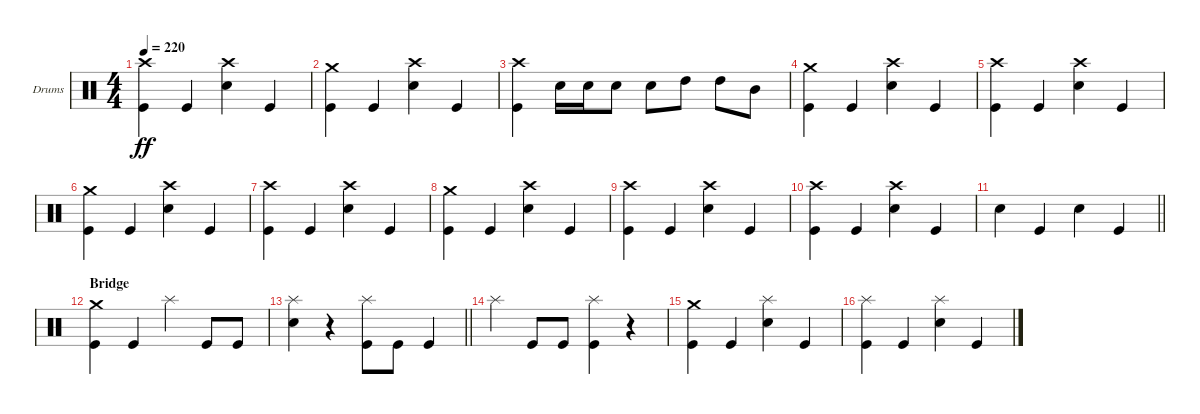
\bracketExtendMode groupsimilarinstruments
\firstSystemTrackNameOrientation horizontal
\otherSystemsTrackNameOrientation horizontal
\track ("Drumkit" "Drums") {instrument percussion}
\staff {score}
\articulation defaults
\ts (4 4)
\tempo 220
\clef neutral
\ks c
("Crash high (hit)" "Kick (hit)").4{dy ff} "Kick (hit)".4 ("Crash high (hit)" "Snare (hit) 2").4 "Kick (hit)".4 |
("Crash medium (hit)" "Kick (hit)").4 "Kick (hit)".4 ("Crash high (hit)" "Snare (hit) 2").4 "Kick (hit)".4 |
("Crash high (hit)" "Kick (hit)").4 "Snare (hit) 2".16 "Snare (hit) 2".16 "Snare (hit) 2".8 "Snare (hit) 2".8 "High Tom (hit)".8 "High Tom (hit)".8 "Mid Tom (hit)".8 |
("Crash medium (hit)" "Kick (hit)").4 "Kick (hit)".4 ("Crash high (hit)" "Snare (hit) 2").4 "Kick (hit)".4 |
("Crash high (hit)" "Kick (hit)").4 "Kick (hit)".4 ("Crash high (hit)" "Snare (hit) 2").4 "Kick (hit)".4 |
("Crash medium (hit)" "Kick (hit)").4 "Kick (hit)".4 ("Crash high (hit)" "Snare (hit) 2").4 "Kick (hit)".4 |
("Crash high (hit)" "Kick (hit)").4 "Kick (hit)".4 ("Crash high (hit)" "Snare (hit) 2").4 "Kick (hit)".4 |
("Crash medium (hit)" "Kick (hit)").4 "Kick (hit)".4 ("Crash high (hit)" "Snare (hit) 2").4 "Kick (hit)".4 |
("Crash high (hit)" "Kick (hit)").4 "Kick (hit)".4 ("Crash high (hit)" "Snare (hit) 2").4 "Kick (hit)".4 |
("Crash high (hit)" "Kick (hit)").4 "Kick (hit)".4 ("Crash high (hit)" "Snare (hit) 2").4 "Kick (hit)".4 |
\barLineRight lightlight "Snare (hit) 2".4 "Kick (hit)".4 "Snare (hit) 2".4 "Kick (hit)".4
|
\section ("" "Bridge")
("Crash medium (hit)" "Kick (hit)").4 "Kick (hit)".4 "Splash (hit)".4 "Kick (hit)".8 "Kick (hit)".8 |
\barLineRight lightlight
("Splash (hit)" "Snare (hit) 2").4 r.4 ("Splash (hit)" "Kick (hit)").8 "Kick (hit)".8 "Kick (hit)".4 |
"Splash (hit)".4 "Kick (hit)".8 "Kick (hit)".8 ("Splash (hit)" "Kick (hit)").4 r.4 |
("Crash medium (hit)" "Kick (hit)").4 "Kick (hit)".4 ("Splash (hit)" "Snare (hit) 2").4 "Kick (hit)".4 |
("Splash (hit)" "Kick (hit)").4 "Kick (hit)".4 ("Splash (hit)" "Snare (hit) 2").4 "Kick (hit)".4
